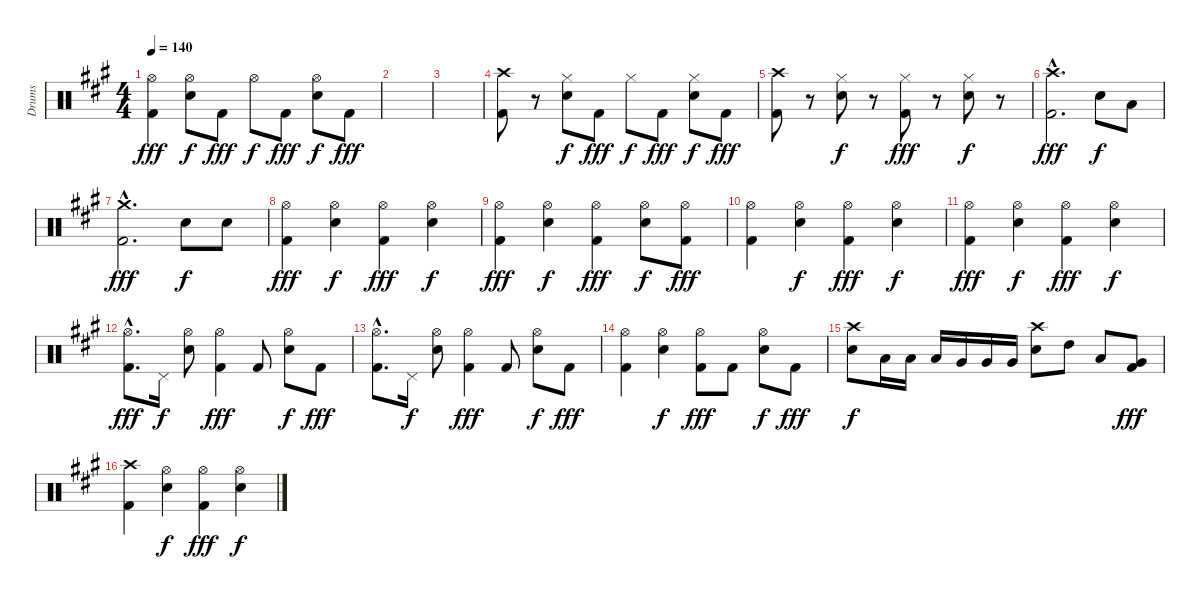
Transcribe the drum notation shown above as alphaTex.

\track ("Drums" "Drums") {instrument percussion}
\staff {score}
\articulation defaults
\ts (4 4)
\tempo 140
\clef neutral
\ks a
("Hi-Hat (open)" "Kick (hit) 2").4{dy fff} ("Hi-Hat (open)" "Electric Snare (hit)").8{dy f} "Kick (hit) 2".8{dy fff} "Hi-Hat (open)".8{dy f} "Kick (hit) 2".8{dy fff} ("Hi-Hat (open)" "Electric Snare (hit)").8{dy f} "Kick (hit) 2".8{dy fff} |
|
|
("Crash high (hit)" "Kick (hit) 2").8 r.8 ("Hi-Hat (closed)" "Electric Snare (hit)").8{dy f} "Kick (hit) 2".8{dy fff} "Hi-Hat (closed)".8{dy f} "Kick (hit) 2".8{dy fff} ("Hi-Hat (closed)" "Electric Snare (hit)").8{dy f} "Kick (hit) 2".8{dy fff} |
("Crash high (hit)" "Kick (hit) 2").8 r.8 ("Hi-Hat (closed)" "Electric Snare (hit)").8{dy f} r.8 ("Hi-Hat (closed)" "Kick (hit) 2").8{dy fff} r.8 ("Hi-Hat (closed)" "Electric Snare (hit)").8{dy f} r.8 |
("Crash high (hit)"{hac} "Kick (hit) 2"{hac}).2{d dy fff} "Electric Snare (hit)".8{dy f} "Low Tom (hit)".8 |
("Crash medium (hit)"{hac} "Kick (hit) 2"{hac}).2{d dy fff} "Electric Snare (hit)".8{dy f} "Electric Snare (hit)".8 |
("Hi-Hat (open)" "Kick (hit) 2").4{dy fff} ("Hi-Hat (open)" "Electric Snare (hit)").4{dy f} ("Hi-Hat (open)" "Kick (hit) 2").4{dy fff} ("Hi-Hat (open)" "Electric Snare (hit)").4{dy f} |
("Hi-Hat (open)" "Kick (hit) 2").4{dy fff} ("Hi-Hat (open)" "Electric Snare (hit)").4{dy f} ("Hi-Hat (open)" "Kick (hit) 2").4{dy fff} ("Hi-Hat (open)" "Electric Snare (hit)").8{dy f} ("Hi-Hat (open)" "Kick (hit) 2").8{dy fff} |
("Hi-Hat (open)" "Kick (hit) 2").4 ("Hi-Hat (open)" "Electric Snare (hit)").4{dy f} ("Hi-Hat (open)" "Kick (hit) 2").4{dy fff} ("Hi-Hat (open)" "Electric Snare (hit)").4{dy f} |
("Hi-Hat (open)" "Kick (hit) 2").4{dy fff} ("Hi-Hat (open)" "Electric Snare (hit)").4{dy f} ("Hi-Hat (open)" "Kick (hit) 2").4{dy fff} ("Hi-Hat (open)" "Electric Snare (hit)").4{dy f} |
("Hi-Hat (open)"{hac} "Kick (hit) 2"{hac}).8{d dy fff} "Pedal Hi-Hat (hit)".16{dy f} ("Hi-Hat (open)" "Electric Snare (hit)").8 ("Hi-Hat (open)" "Kick (hit) 2").4{dy fff} "Kick (hit) 2".8 ("Hi-Hat (open)" "Electric Snare (hit)").8{dy f} "Kick (hit) 2".8{dy fff} |
("Hi-Hat (open)"{hac} "Kick (hit) 2"{hac}).8{d} "Pedal Hi-Hat (hit)".16{dy f} ("Hi-Hat (open)" "Electric Snare (hit)").8 ("Hi-Hat (open)" "Kick (hit) 2").4{dy fff} "Kick (hit) 2".8 ("Hi-Hat (open)" "Electric Snare (hit)").8{dy f} "Kick (hit) 2".8{dy fff} |
("Hi-Hat (open)" "Kick (hit) 2").4 ("Hi-Hat (open)" "Electric Snare (hit)").4{dy f} ("Hi-Hat (open)" "Kick (hit) 2").8{dy fff} "Kick (hit) 2".8 ("Hi-Hat (open)" "Electric Snare (hit)").8{dy f} "Kick (hit) 2".8{dy fff} |
("Crash high (hit)" "Electric Snare (hit)").8{dy f} "Low Tom (hit)".16 "Low Tom (hit)".16 "Low Tom (hit)".16 "Very Low Tom (hit)".16 "Very Low Tom (hit)".16 "Very Low Tom (hit)".16 ("Crash high (hit)" "Electric Snare (hit)").8 "High Tom (hit)".8 "Low Tom (hit)".8 ("Very Low Tom (hit)" "Kick (hit) 2").8{dy fff} |
("Crash high (hit)" "Kick (hit) 2").4 ("Hi-Hat (open)" "Electric Snare (hit)").4{dy f} ("Hi-Hat (open)" "Kick (hit) 2").4{dy fff} ("Hi-Hat (open)" "Electric Snare (hit)").4{dy f}
